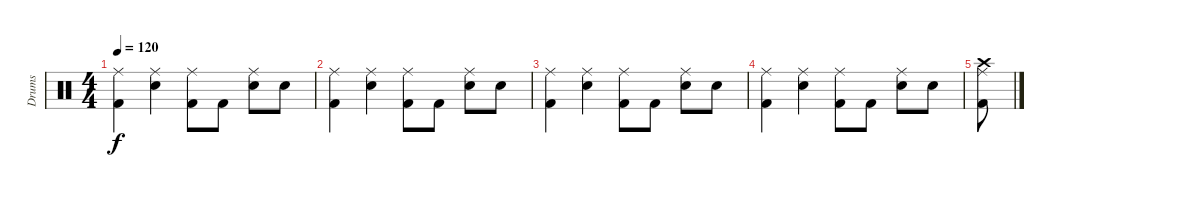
\track ("Drums" "Drums") {instrument percussion}
\staff {score}
\articulation defaults
\ts (4 4)
\tempo 120
\clef neutral
\ks c
("Ride (middle)" "Kick (hit) 2").4{dy f} ("Ride (middle)" "Snare (hit) 2").4 ("Ride (middle)" "Kick (hit) 2").8 "Kick (hit) 2".8 ("Ride (middle)" "Snare (hit) 2").8 "Snare (hit) 2".8 |
("Ride (middle)" "Kick (hit) 2").4 ("Ride (middle)" "Snare (hit) 2").4 ("Ride (middle)" "Kick (hit) 2").8 "Kick (hit) 2".8 ("Ride (middle)" "Snare (hit) 2").8 "Snare (hit) 2".8 |
("Ride (middle)" "Kick (hit) 2").4 ("Ride (middle)" "Snare (hit) 2").4 ("Ride (middle)" "Kick (hit) 2").8 "Kick (hit) 2".8 ("Ride (middle)" "Snare (hit) 2").8 "Snare (hit) 2".8 |
("Ride (middle)" "Kick (hit) 2").4 ("Ride (middle)" "Snare (hit) 2").4 ("Ride (middle)" "Kick (hit) 2").8 "Kick (hit) 2".8 ("Ride (middle)" "Snare (hit) 2").8 "Snare (hit) 2".8 |
("Ride (middle)" "Kick (hit) 2" "Crash high (hit)").8
